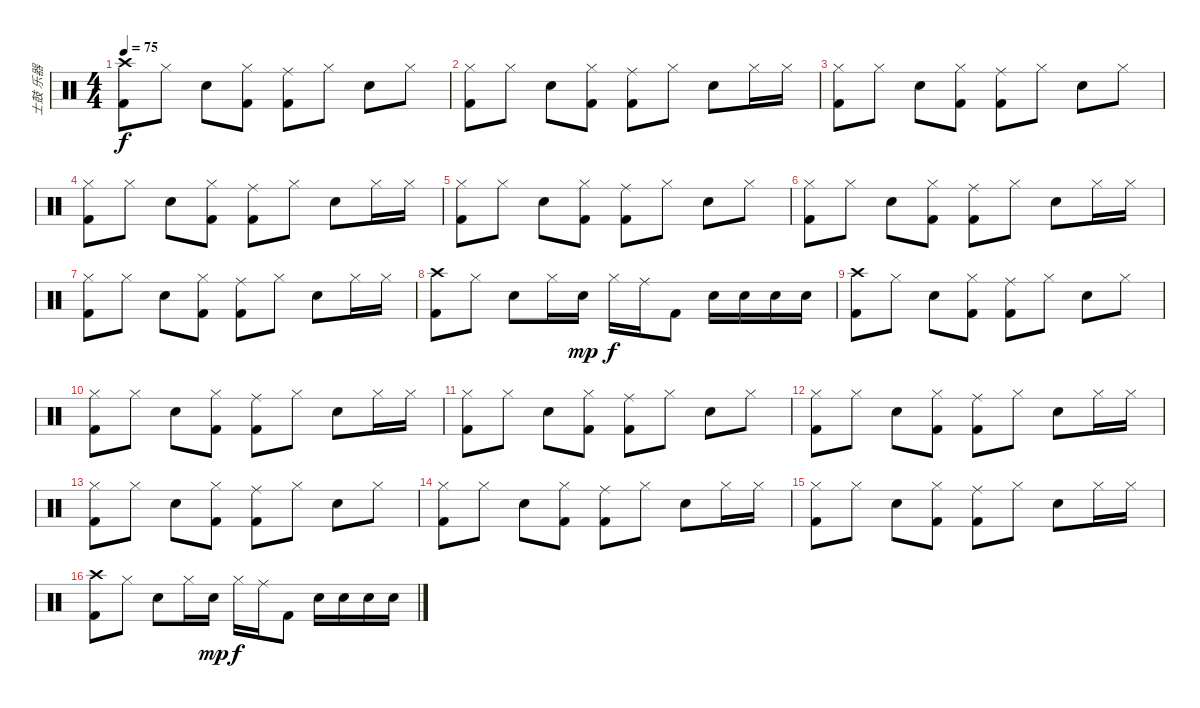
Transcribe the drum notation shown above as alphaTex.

\track ("士鼓 乐器" "士鼓 乐器") {instrument percussion}
\staff {score}
\articulation defaults
\ts (4 4)
\tempo 75
\clef neutral
\ks c
("Crash high (hit)" "Kick (hit) 2").8{dy f} "Hi-Hat (closed)".8 "Snare (hit) 2".8 ("Hi-Hat (closed)" "Kick (hit) 2").8 ("Ride (middle)" "Kick (hit) 2").8 "Hi-Hat (closed)".8 "Snare (hit) 2".8 "Hi-Hat (closed)".8 |
("Hi-Hat (closed)" "Kick (hit) 2").8 "Hi-Hat (closed)".8 "Snare (hit) 2".8 ("Hi-Hat (closed)" "Kick (hit) 2").8 ("Ride (middle)" "Kick (hit) 2").8 "Hi-Hat (closed)".8 "Snare (hit) 2".8 "Hi-Hat (closed)".16 "Hi-Hat (closed)".16 |
("Hi-Hat (closed)" "Kick (hit) 2").8 "Hi-Hat (closed)".8 "Snare (hit) 2".8 ("Hi-Hat (closed)" "Kick (hit) 2").8 ("Ride (middle)" "Kick (hit) 2").8 "Hi-Hat (closed)".8 "Snare (hit) 2".8 "Hi-Hat (closed)".8 |
("Hi-Hat (closed)" "Kick (hit) 2").8 "Hi-Hat (closed)".8 "Snare (hit) 2".8 ("Hi-Hat (closed)" "Kick (hit) 2").8 ("Ride (middle)" "Kick (hit) 2").8 "Hi-Hat (closed)".8 "Snare (hit) 2".8 "Hi-Hat (closed)".16 "Hi-Hat (closed)".16 |
("Hi-Hat (closed)" "Kick (hit) 2").8 "Hi-Hat (closed)".8 "Snare (hit) 2".8 ("Hi-Hat (closed)" "Kick (hit) 2").8 ("Ride (middle)" "Kick (hit) 2").8 "Hi-Hat (closed)".8 "Snare (hit) 2".8 "Hi-Hat (closed)".8 |
("Hi-Hat (closed)" "Kick (hit) 2").8 "Hi-Hat (closed)".8 "Snare (hit) 2".8 ("Hi-Hat (closed)" "Kick (hit) 2").8 ("Ride (middle)" "Kick (hit) 2").8 "Hi-Hat (closed)".8 "Snare (hit) 2".8 "Hi-Hat (closed)".16 "Hi-Hat (closed)".16 |
("Hi-Hat (closed)" "Kick (hit) 2").8 "Hi-Hat (closed)".8 "Snare (hit) 2".8 ("Hi-Hat (closed)" "Kick (hit) 2").8 ("Ride (middle)" "Kick (hit) 2").8 "Hi-Hat (closed)".8 "Snare (hit) 2".8 "Hi-Hat (closed)".16 "Hi-Hat (closed)".16 |
("Crash high (hit)" "Kick (hit) 2").8 "Hi-Hat (closed)".8 "Snare (hit) 2".8 "Hi-Hat (closed)".16 "Snare (hit) 2".16{dy mp} "Hi-Hat (closed)".16{dy f} "Ride (middle)".16 "Kick (hit) 2".8 "Snare (hit) 2".16 "Snare (hit) 2".16 "Snare (hit) 2".16 "Snare (hit) 2".16 |
("Crash high (hit)" "Kick (hit) 2").8 "Hi-Hat (closed)".8 "Snare (hit) 2".8 ("Hi-Hat (closed)" "Kick (hit) 2").8 ("Ride (middle)" "Kick (hit) 2").8 "Hi-Hat (closed)".8 "Snare (hit) 2".8 "Hi-Hat (closed)".8 |
("Hi-Hat (closed)" "Kick (hit) 2").8 "Hi-Hat (closed)".8 "Snare (hit) 2".8 ("Hi-Hat (closed)" "Kick (hit) 2").8 ("Ride (middle)" "Kick (hit) 2").8 "Hi-Hat (closed)".8 "Snare (hit) 2".8 "Hi-Hat (closed)".16 "Hi-Hat (closed)".16 |
("Hi-Hat (closed)" "Kick (hit) 2").8 "Hi-Hat (closed)".8 "Snare (hit) 2".8 ("Hi-Hat (closed)" "Kick (hit) 2").8 ("Ride (middle)" "Kick (hit) 2").8 "Hi-Hat (closed)".8 "Snare (hit) 2".8 "Hi-Hat (closed)".8 |
("Hi-Hat (closed)" "Kick (hit) 2").8 "Hi-Hat (closed)".8 "Snare (hit) 2".8 ("Hi-Hat (closed)" "Kick (hit) 2").8 ("Ride (middle)" "Kick (hit) 2").8 "Hi-Hat (closed)".8 "Snare (hit) 2".8 "Hi-Hat (closed)".16 "Hi-Hat (closed)".16 |
("Hi-Hat (closed)" "Kick (hit) 2").8 "Hi-Hat (closed)".8 "Snare (hit) 2".8 ("Hi-Hat (closed)" "Kick (hit) 2").8 ("Ride (middle)" "Kick (hit) 2").8 "Hi-Hat (closed)".8 "Snare (hit) 2".8 "Hi-Hat (closed)".8 |
("Hi-Hat (closed)" "Kick (hit) 2").8 "Hi-Hat (closed)".8 "Snare (hit) 2".8 ("Hi-Hat (closed)" "Kick (hit) 2").8 ("Ride (middle)" "Kick (hit) 2").8 "Hi-Hat (closed)".8 "Snare (hit) 2".8 "Hi-Hat (closed)".16 "Hi-Hat (closed)".16 |
("Hi-Hat (closed)" "Kick (hit) 2").8 "Hi-Hat (closed)".8 "Snare (hit) 2".8 ("Hi-Hat (closed)" "Kick (hit) 2").8 ("Ride (middle)" "Kick (hit) 2").8 "Hi-Hat (closed)".8 "Snare (hit) 2".8 "Hi-Hat (closed)".16 "Hi-Hat (closed)".16 |
("Crash high (hit)" "Kick (hit) 2").8 "Hi-Hat (closed)".8 "Snare (hit) 2".8 "Hi-Hat (closed)".16 "Snare (hit) 2".16{dy mp} "Hi-Hat (closed)".16{dy f} "Ride (middle)".16 "Kick (hit) 2".8 "Snare (hit) 2".16 "Snare (hit) 2".16 "Snare (hit) 2".16 "Snare (hit) 2".16
